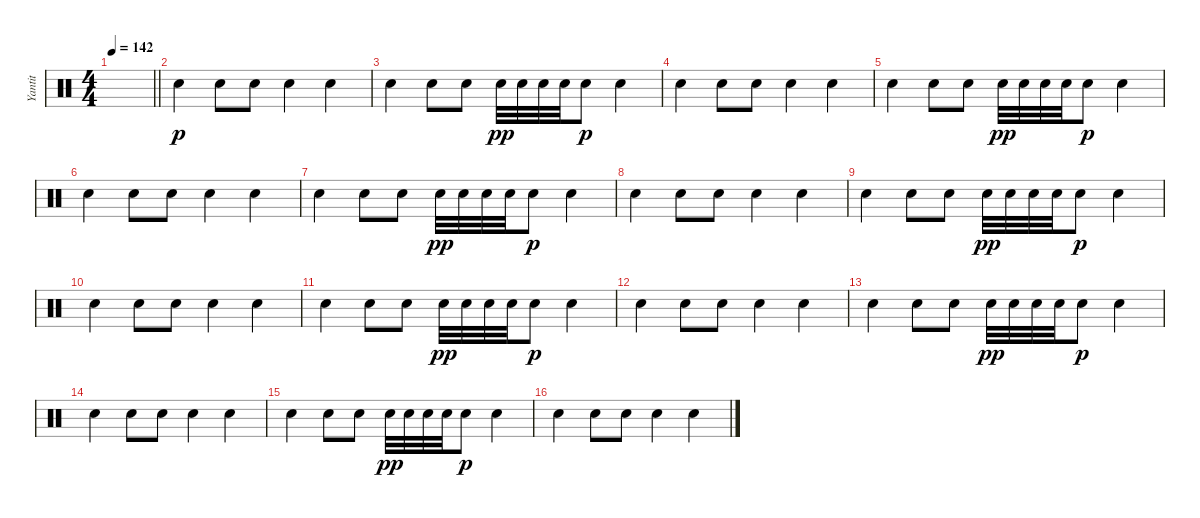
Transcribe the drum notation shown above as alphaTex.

\track ("Yantit" "Yantit") {instrument percussion}
\staff {score}
\articulation defaults
\ts (4 4)
\tempo 142
\clef neutral
\barLineRight lightlight
\ks c
|
"Electric Snare (hit)".4{dy p} "Electric Snare (hit)".8 "Electric Snare (hit)".8 "Electric Snare (hit)".4 "Electric Snare (hit)".4 |
"Electric Snare (hit)".4 "Electric Snare (hit)".8 "Electric Snare (hit)".8 "Electric Snare (hit)".32{dy pp} "Electric Snare (hit)".32 "Electric Snare (hit)".32 "Electric Snare (hit)".32 "Electric Snare (hit)".8{dy p} "Electric Snare (hit)".4 |
"Electric Snare (hit)".4 "Electric Snare (hit)".8 "Electric Snare (hit)".8 "Electric Snare (hit)".4 "Electric Snare (hit)".4 |
"Electric Snare (hit)".4 "Electric Snare (hit)".8 "Electric Snare (hit)".8 "Electric Snare (hit)".32{dy pp} "Electric Snare (hit)".32 "Electric Snare (hit)".32 "Electric Snare (hit)".32 "Electric Snare (hit)".8{dy p} "Electric Snare (hit)".4 |
"Electric Snare (hit)".4 "Electric Snare (hit)".8 "Electric Snare (hit)".8 "Electric Snare (hit)".4 "Electric Snare (hit)".4 |
"Electric Snare (hit)".4 "Electric Snare (hit)".8 "Electric Snare (hit)".8 "Electric Snare (hit)".32{dy pp} "Electric Snare (hit)".32 "Electric Snare (hit)".32 "Electric Snare (hit)".32 "Electric Snare (hit)".8{dy p} "Electric Snare (hit)".4 |
"Electric Snare (hit)".4 "Electric Snare (hit)".8 "Electric Snare (hit)".8 "Electric Snare (hit)".4 "Electric Snare (hit)".4 |
"Electric Snare (hit)".4 "Electric Snare (hit)".8 "Electric Snare (hit)".8 "Electric Snare (hit)".32{dy pp} "Electric Snare (hit)".32 "Electric Snare (hit)".32 "Electric Snare (hit)".32 "Electric Snare (hit)".8{dy p} "Electric Snare (hit)".4 |
"Electric Snare (hit)".4 "Electric Snare (hit)".8 "Electric Snare (hit)".8 "Electric Snare (hit)".4 "Electric Snare (hit)".4 |
"Electric Snare (hit)".4 "Electric Snare (hit)".8 "Electric Snare (hit)".8 "Electric Snare (hit)".32{dy pp} "Electric Snare (hit)".32 "Electric Snare (hit)".32 "Electric Snare (hit)".32 "Electric Snare (hit)".8{dy p} "Electric Snare (hit)".4 |
"Electric Snare (hit)".4 "Electric Snare (hit)".8 "Electric Snare (hit)".8 "Electric Snare (hit)".4 "Electric Snare (hit)".4 |
"Electric Snare (hit)".4 "Electric Snare (hit)".8 "Electric Snare (hit)".8 "Electric Snare (hit)".32{dy pp} "Electric Snare (hit)".32 "Electric Snare (hit)".32 "Electric Snare (hit)".32 "Electric Snare (hit)".8{dy p} "Electric Snare (hit)".4 |
"Electric Snare (hit)".4 "Electric Snare (hit)".8 "Electric Snare (hit)".8 "Electric Snare (hit)".4 "Electric Snare (hit)".4 |
"Electric Snare (hit)".4 "Electric Snare (hit)".8 "Electric Snare (hit)".8 "Electric Snare (hit)".32{dy pp} "Electric Snare (hit)".32 "Electric Snare (hit)".32 "Electric Snare (hit)".32 "Electric Snare (hit)".8{dy p} "Electric Snare (hit)".4 |
"Electric Snare (hit)".4 "Electric Snare (hit)".8 "Electric Snare (hit)".8 "Electric Snare (hit)".4 "Electric Snare (hit)".4
